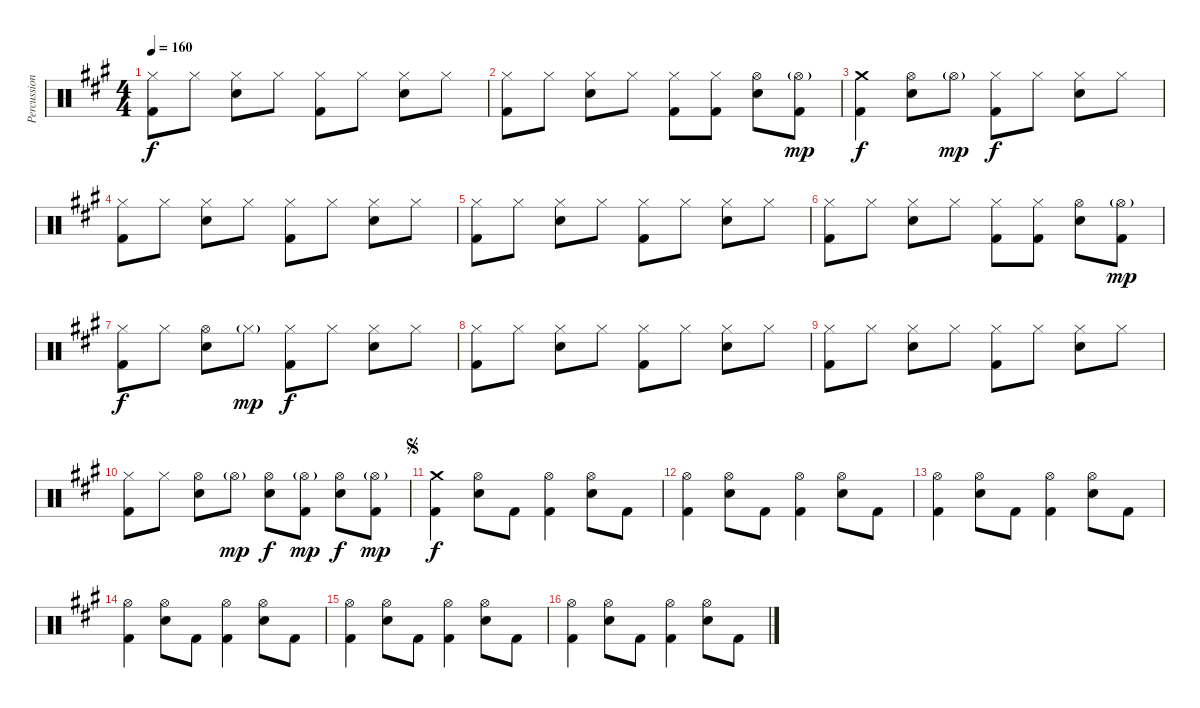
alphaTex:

\track ("Percussion" "Percussion") {instrument percussion}
\staff {score}
\articulation defaults
\ts (4 4)
\tempo 160
\clef neutral
\ks a
("Hi-Hat (closed)" "Kick (hit) 2").8{dy f} "Hi-Hat (closed)".8 ("Hi-Hat (closed)" "Electric Snare (hit)").8 "Hi-Hat (closed)".8 ("Hi-Hat (closed)" "Kick (hit) 2").8 "Hi-Hat (closed)".8 ("Hi-Hat (closed)" "Electric Snare (hit)").8 "Hi-Hat (closed)".8 |
("Hi-Hat (closed)" "Kick (hit) 2").8 "Hi-Hat (closed)".8 ("Hi-Hat (closed)" "Electric Snare (hit)").8 "Hi-Hat (closed)".8 ("Hi-Hat (closed)" "Kick (hit) 2").8 ("Hi-Hat (closed)" "Kick (hit) 2").8 ("Hi-Hat (open)" "Electric Snare (hit)").8 ("Hi-Hat (open)"{g} "Kick (hit) 2").8{dy mp} |
("Crash medium (hit)" "Kick (hit) 2").4{dy f} ("Hi-Hat (open)" "Electric Snare (hit)").8 "Hi-Hat (open)"{g}.8{dy mp} ("Hi-Hat (closed)" "Kick (hit) 2").8{dy f} "Hi-Hat (closed)".8 ("Hi-Hat (closed)" "Electric Snare (hit)").8 "Hi-Hat (closed)".8 |
("Hi-Hat (closed)" "Kick (hit) 2").8 "Hi-Hat (closed)".8 ("Hi-Hat (closed)" "Electric Snare (hit)").8 "Hi-Hat (closed)".8 ("Hi-Hat (closed)" "Kick (hit) 2").8 "Hi-Hat (closed)".8 ("Hi-Hat (closed)" "Electric Snare (hit)").8 "Hi-Hat (closed)".8 |
("Hi-Hat (closed)" "Kick (hit) 2").8 "Hi-Hat (closed)".8 ("Hi-Hat (closed)" "Electric Snare (hit)").8 "Hi-Hat (closed)".8 ("Hi-Hat (closed)" "Kick (hit) 2").8 "Hi-Hat (closed)".8 ("Hi-Hat (closed)" "Electric Snare (hit)").8 "Hi-Hat (closed)".8 |
("Hi-Hat (closed)" "Kick (hit) 2").8 "Hi-Hat (closed)".8 ("Hi-Hat (closed)" "Electric Snare (hit)").8 "Hi-Hat (closed)".8 ("Hi-Hat (closed)" "Kick (hit) 2").8 ("Hi-Hat (closed)" "Kick (hit) 2").8 ("Hi-Hat (open)" "Electric Snare (hit)").8 ("Hi-Hat (open)"{g} "Kick (hit) 2").8{dy mp} |
("Hi-Hat (closed)" "Kick (hit) 2").8{dy f} "Hi-Hat (closed)".8 ("Hi-Hat (open)" "Electric Snare (hit)").8 "Hi-Hat (closed)"{g}.8{dy mp} ("Hi-Hat (closed)" "Kick (hit) 2").8{dy f} "Hi-Hat (closed)".8 ("Hi-Hat (closed)" "Electric Snare (hit)").8 "Hi-Hat (closed)".8 |
("Hi-Hat (closed)" "Kick (hit) 2").8 "Hi-Hat (closed)".8 ("Hi-Hat (closed)" "Electric Snare (hit)").8 "Hi-Hat (closed)".8 ("Hi-Hat (closed)" "Kick (hit) 2").8 "Hi-Hat (closed)".8 ("Hi-Hat (closed)" "Electric Snare (hit)").8 "Hi-Hat (closed)".8 |
("Hi-Hat (closed)" "Kick (hit) 2").8 "Hi-Hat (closed)".8 ("Hi-Hat (closed)" "Electric Snare (hit)").8 "Hi-Hat (closed)".8 ("Hi-Hat (closed)" "Kick (hit) 2").8 "Hi-Hat (closed)".8 ("Hi-Hat (closed)" "Electric Snare (hit)").8 "Hi-Hat (closed)".8 |
("Hi-Hat (closed)" "Kick (hit) 2").8 "Hi-Hat (closed)".8 ("Hi-Hat (open)" "Electric Snare (hit)").8 "Hi-Hat (open)"{g}.8{dy mp} ("Hi-Hat (open)" "Electric Snare (hit)").8{dy f} ("Hi-Hat (open)"{g} "Kick (hit) 2").8{dy mp} ("Hi-Hat (open)" "Electric Snare (hit)").8{dy f} ("Hi-Hat (open)"{g} "Kick (hit) 2").8{dy mp} |
\jump segno
("Crash medium (hit)" "Kick (hit) 2").4{dy f} ("Hi-Hat (open)" "Electric Snare (hit)").8 "Kick (hit) 2".8 ("Hi-Hat (open)" "Kick (hit) 2").4 ("Hi-Hat (open)" "Electric Snare (hit)").8 "Kick (hit) 2".8 |
("Hi-Hat (open)" "Kick (hit) 2").4 ("Hi-Hat (open)" "Electric Snare (hit)").8 "Kick (hit) 2".8 ("Hi-Hat (open)" "Kick (hit) 2").4 ("Hi-Hat (open)" "Electric Snare (hit)").8 "Kick (hit) 2".8 |
("Hi-Hat (open)" "Kick (hit) 2").4 ("Hi-Hat (open)" "Electric Snare (hit)").8 "Kick (hit) 2".8 ("Hi-Hat (open)" "Kick (hit) 2").4 ("Hi-Hat (open)" "Electric Snare (hit)").8 "Kick (hit) 2".8 |
("Hi-Hat (open)" "Kick (hit) 2").4 ("Hi-Hat (open)" "Electric Snare (hit)").8 "Kick (hit) 2".8 ("Hi-Hat (open)" "Kick (hit) 2").4 ("Hi-Hat (open)" "Electric Snare (hit)").8 "Kick (hit) 2".8 |
("Hi-Hat (open)" "Kick (hit) 2").4 ("Hi-Hat (open)" "Electric Snare (hit)").8 "Kick (hit) 2".8 ("Hi-Hat (open)" "Kick (hit) 2").4 ("Hi-Hat (open)" "Electric Snare (hit)").8 "Kick (hit) 2".8 |
("Hi-Hat (open)" "Kick (hit) 2").4 ("Hi-Hat (open)" "Electric Snare (hit)").8 "Kick (hit) 2".8 ("Hi-Hat (open)" "Kick (hit) 2").4 ("Hi-Hat (open)" "Electric Snare (hit)").8 "Kick (hit) 2".8
